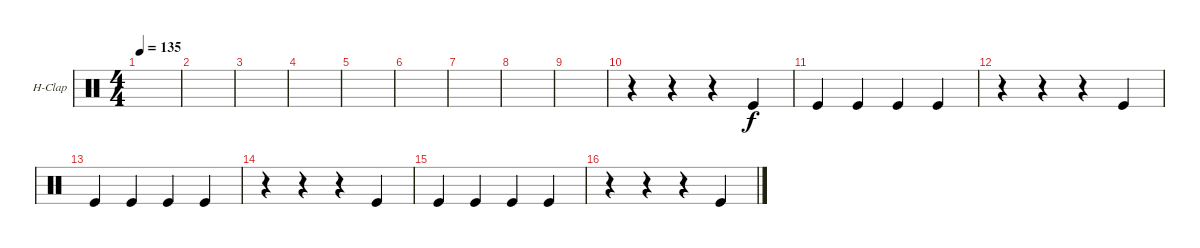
\bracketExtendMode groupsimilarinstruments
\firstSystemTrackNameOrientation horizontal
\otherSystemsTrackNameOrientation horizontal
\track ("Hand Clap" "H-Clap") {instrument percussion}
\staff {score}
\articulation defaults
\ts (4 4)
\tempo 135
\clef neutral
\scale
0.333333
\ks c
|
\scale
0.333333 |
\scale
0.333333 |
\scale
0.333333 |
\scale
0.333333 |
\scale
0.333333 |
\scale
0.333333 |
\scale
0.333333 |
\scale
0.333333 |
\scale
0.333333 r.4 r.4 r.4 "Kick (hit)".4 |
\scale
0.333333 "Kick (hit)".4 "Kick (hit)".4 "Kick (hit)".4 "Kick (hit)".4 |
\scale
0.333333 r.4 r.4 r.4 "Kick (hit)".4 |
\scale
0.333333 "Kick (hit)".4 "Kick (hit)".4 "Kick (hit)".4 "Kick (hit)".4 |
\scale
0.333333 r.4 r.4 r.4 "Kick (hit)".4 |
\scale
0.333333 "Kick (hit)".4 "Kick (hit)".4 "Kick (hit)".4 "Kick (hit)".4 |
\scale
0.333333 r.4 r.4 r.4 "Kick (hit)".4
